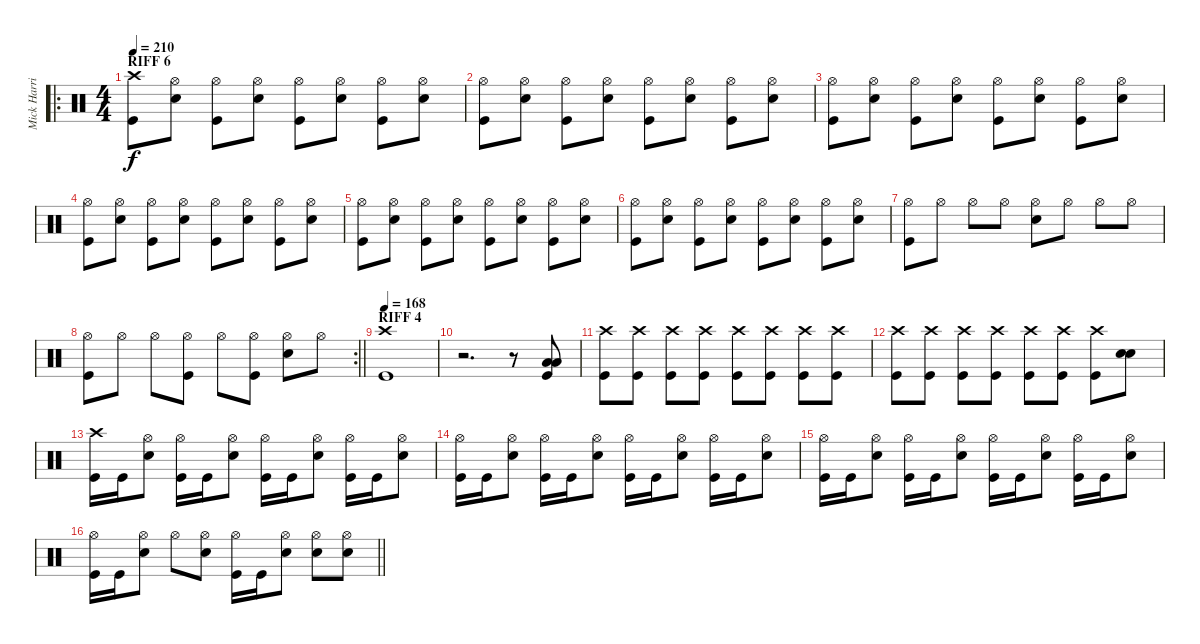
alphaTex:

\track ("Mick Harris" "Mick Harri") {instrument percussion}
\staff {score}
\articulation defaults
\ro
\ts (4 4)
\section ("" "RIFF 6")
\tempo 210
\clef neutral
\ks c
("Crash high (hit)" "Kick (hit)").8{dy f} ("Hi-Hat (open)" "Snare (hit) 2").8 ("Hi-Hat (open)" "Kick (hit)").8 ("Hi-Hat (open)" "Snare (hit) 2").8 ("Hi-Hat (open)" "Kick (hit)").8 ("Hi-Hat (open)" "Snare (hit) 2").8 ("Hi-Hat (open)" "Kick (hit)").8 ("Hi-Hat (open)" "Snare (hit) 2").8 |
("Hi-Hat (open)" "Kick (hit)").8 ("Hi-Hat (open)" "Snare (hit) 2").8 ("Hi-Hat (open)" "Kick (hit)").8 ("Hi-Hat (open)" "Snare (hit) 2").8 ("Hi-Hat (open)" "Kick (hit)").8 ("Hi-Hat (open)" "Snare (hit) 2").8 ("Hi-Hat (open)" "Kick (hit)").8 ("Hi-Hat (open)" "Snare (hit) 2").8 |
("Hi-Hat (open)" "Kick (hit)").8 ("Hi-Hat (open)" "Snare (hit) 2").8 ("Hi-Hat (open)" "Kick (hit)").8 ("Hi-Hat (open)" "Snare (hit) 2").8 ("Hi-Hat (open)" "Kick (hit)").8 ("Hi-Hat (open)" "Snare (hit) 2").8 ("Hi-Hat (open)" "Kick (hit)").8 ("Hi-Hat (open)" "Snare (hit) 2").8 |
("Hi-Hat (open)" "Kick (hit)").8 ("Hi-Hat (open)" "Snare (hit) 2").8 ("Hi-Hat (open)" "Kick (hit)").8 ("Hi-Hat (open)" "Snare (hit) 2").8 ("Hi-Hat (open)" "Kick (hit)").8 ("Hi-Hat (open)" "Snare (hit) 2").8 ("Hi-Hat (open)" "Kick (hit)").8 ("Hi-Hat (open)" "Snare (hit) 2").8 |
("Hi-Hat (open)" "Kick (hit)").8 ("Hi-Hat (open)" "Snare (hit) 2").8 ("Hi-Hat (open)" "Kick (hit)").8 ("Hi-Hat (open)" "Snare (hit) 2").8 ("Hi-Hat (open)" "Kick (hit)").8 ("Hi-Hat (open)" "Snare (hit) 2").8 ("Hi-Hat (open)" "Kick (hit)").8 ("Hi-Hat (open)" "Snare (hit) 2").8 |
("Hi-Hat (open)" "Kick (hit)").8 ("Hi-Hat (open)" "Snare (hit) 2").8 ("Hi-Hat (open)" "Kick (hit)").8 ("Hi-Hat (open)" "Snare (hit) 2").8 ("Hi-Hat (open)" "Kick (hit)").8 ("Hi-Hat (open)" "Snare (hit) 2").8 ("Hi-Hat (open)" "Kick (hit)").8 ("Hi-Hat (open)" "Snare (hit) 2").8 |
("Hi-Hat (open)" "Kick (hit)").8 "Hi-Hat (open)".8 "Hi-Hat (open)".8 "Hi-Hat (open)".8 ("Hi-Hat (open)" "Snare (hit) 2").8 "Hi-Hat (open)".8 "Hi-Hat (open)".8 "Hi-Hat (open)".8 |
\rc 2
\barLineRight lightlight
("Hi-Hat (open)" "Kick (hit)").8 "Hi-Hat (open)".8 "Hi-Hat (open)".8 ("Hi-Hat (open)" "Kick (hit)").8 "Hi-Hat (open)".8 ("Hi-Hat (open)" "Kick (hit)").8 ("Hi-Hat (open)" "Snare (hit) 2").8 "Hi-Hat (open)".8 |
\section ("" "RIFF 4")
\tempo 168
("Crash high (hit)" "Kick (hit)").1 |
r.2{d} r.8 ("Low Floor Tom (hit)" "Low Tom (hit)" "Kick (hit)").8 |
("Crash high (hit)" "Kick (hit)").8 ("Crash high (hit)" "Kick (hit)").8 ("Crash high (hit)" "Kick (hit)").8 ("Crash high (hit)" "Kick (hit)").8 ("Crash high (hit)" "Kick (hit)").8 ("Crash high (hit)" "Kick (hit)").8 ("Crash high (hit)" "Kick (hit)").8 ("Crash high (hit)" "Kick (hit)").8 |
("Crash high (hit)" "Kick (hit)").8 ("Crash high (hit)" "Kick (hit)").8 ("Crash high (hit)" "Kick (hit)").8 ("Crash high (hit)" "Kick (hit)").8 ("Crash high (hit)" "Kick (hit)").8 ("Crash high (hit)" "Kick (hit)").8 ("Crash high (hit)" "Kick (hit)").8 ("Snare (hit) 2" "Snare (hit) 2").8{bd 240} |
("Crash high (hit)" "Kick (hit)").16 "Kick (hit)".16 ("Hi-Hat (open)" "Snare (hit) 2").8 ("Hi-Hat (open)" "Kick (hit)").16 "Kick (hit)".16 ("Hi-Hat (open)" "Snare (hit) 2").8 ("Hi-Hat (open)" "Kick (hit)").16 "Kick (hit)".16 ("Hi-Hat (open)" "Snare (hit) 2").8 ("Hi-Hat (open)" "Kick (hit)").16 "Kick (hit)".16 ("Hi-Hat (open)" "Snare (hit) 2").8 |
("Hi-Hat (open)" "Kick (hit)").16 "Kick (hit)".16 ("Hi-Hat (open)" "Snare (hit) 2").8 ("Hi-Hat (open)" "Kick (hit)").16 "Kick (hit)".16 ("Hi-Hat (open)" "Snare (hit) 2").8 ("Hi-Hat (open)" "Kick (hit)").16 "Kick (hit)".16 ("Hi-Hat (open)" "Snare (hit) 2").8 ("Hi-Hat (open)" "Kick (hit)").16 "Kick (hit)".16 ("Hi-Hat (open)" "Snare (hit) 2").8 |
("Hi-Hat (open)" "Kick (hit)").16 "Kick (hit)".16 ("Hi-Hat (open)" "Snare (hit) 2").8 ("Hi-Hat (open)" "Kick (hit)").16 "Kick (hit)".16 ("Hi-Hat (open)" "Snare (hit) 2").8 ("Hi-Hat (open)" "Kick (hit)").16 "Kick (hit)".16 ("Hi-Hat (open)" "Snare (hit) 2").8 ("Hi-Hat (open)" "Kick (hit)").16 "Kick (hit)".16 ("Hi-Hat (open)" "Snare (hit) 2").8 |
\barLineRight lightlight
("Hi-Hat (open)" "Kick (hit)").16 "Kick (hit)".16 ("Hi-Hat (open)" "Snare (hit) 2").8 "Hi-Hat (open)".8 ("Hi-Hat (open)" "Snare (hit) 2").8 ("Hi-Hat (open)" "Kick (hit)").16 "Kick (hit)".16 ("Hi-Hat (open)" "Snare (hit) 2").8 ("Hi-Hat (open)" "Snare (hit) 2").8 ("Hi-Hat (open)" "Snare (hit) 2").8
